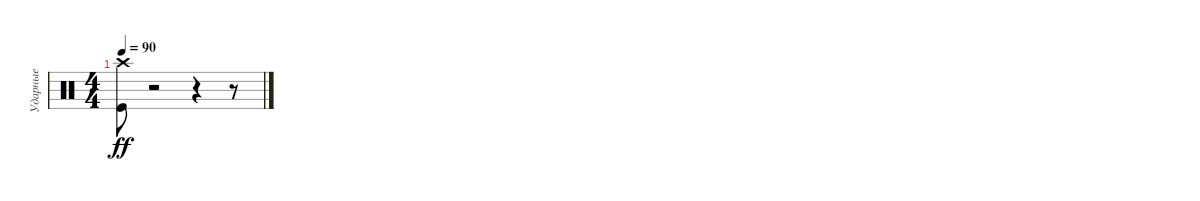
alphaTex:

\track ("Ударные" "Ударные") {instrument percussion}
\staff {score}
\articulation defaults
\ts (4 4)
\tempo 90
\clef neutral
\ks c
("Kick (hit)" "Crash high (hit)").8{dy ff} r.2 r.4 r.8
